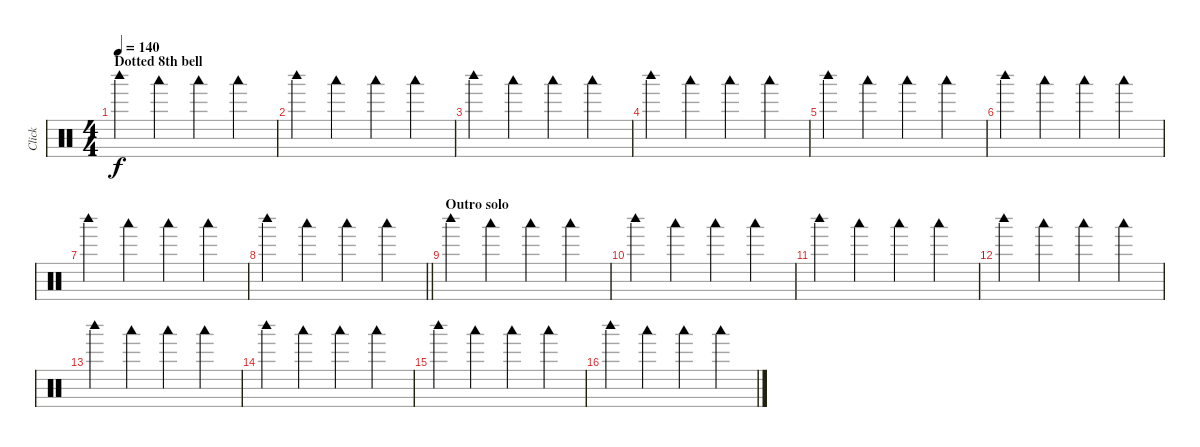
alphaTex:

\track ("Click" "Click") {mute instrument percussion}
\staff {score}
\articulation defaults
\ts (4 4)
\section ("" "Dotted 8th bell")
\tempo 140
\clef neutral
\ks c "Woodblock high (hit)".4{dy f} "Woodblock low (hit)".4 "Woodblock low (hit)".4 "Woodblock low (hit)".4
|
"Woodblock high (hit)".4 "Woodblock low (hit)".4 "Woodblock low (hit)".4 "Woodblock low (hit)".4 |
"Woodblock high (hit)".4 "Woodblock low (hit)".4 "Woodblock low (hit)".4 "Woodblock low (hit)".4 |
"Woodblock high (hit)".4 "Woodblock low (hit)".4 "Woodblock low (hit)".4 "Woodblock low (hit)".4 |
"Woodblock high (hit)".4 "Woodblock low (hit)".4 "Woodblock low (hit)".4 "Woodblock low (hit)".4 |
"Woodblock high (hit)".4 "Woodblock low (hit)".4 "Woodblock low (hit)".4 "Woodblock low (hit)".4 |
"Woodblock high (hit)".4 "Woodblock low (hit)".4 "Woodblock low (hit)".4 "Woodblock low (hit)".4 |
\barLineRight lightlight "Woodblock high (hit)".4 "Woodblock low (hit)".4 "Woodblock low (hit)".4 "Woodblock low (hit)".4
|
\section ("" "Outro solo")
"Woodblock high (hit)".4 "Woodblock low (hit)".4 "Woodblock low (hit)".4 "Woodblock low (hit)".4 |
"Woodblock high (hit)".4 "Woodblock low (hit)".4 "Woodblock low (hit)".4 "Woodblock low (hit)".4 |
"Woodblock high (hit)".4 "Woodblock low (hit)".4 "Woodblock low (hit)".4 "Woodblock low (hit)".4 |
"Woodblock high (hit)".4 "Woodblock low (hit)".4 "Woodblock low (hit)".4 "Woodblock low (hit)".4 |
"Woodblock high (hit)".4 "Woodblock low (hit)".4 "Woodblock low (hit)".4 "Woodblock low (hit)".4 |
"Woodblock high (hit)".4 "Woodblock low (hit)".4 "Woodblock low (hit)".4 "Woodblock low (hit)".4 |
"Woodblock high (hit)".4 "Woodblock low (hit)".4 "Woodblock low (hit)".4 "Woodblock low (hit)".4 |
"Woodblock high (hit)".4 "Woodblock low (hit)".4 "Woodblock low (hit)".4 "Woodblock low (hit)".4
